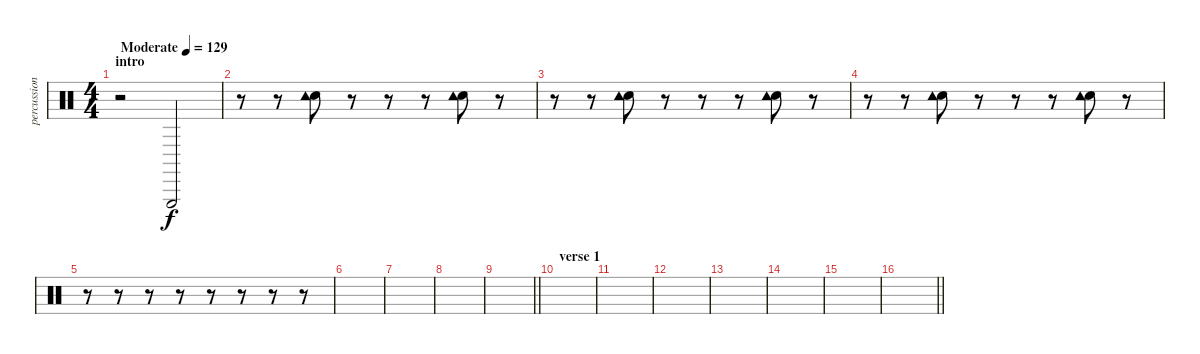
\track ("percussion" "percussion") {instrument percussion}
\staff {score}
\articulation defaults
\ts (4 4)
\section ("" "intro")
\tempo (129 "Moderate")
\clef neutral
\ks c
r.2{dy f} "Triangle (hit)".2 |
r.8 r.8 ("Electric Snare (hit)" "Tambourine (hit)").8 r.8 r.8 r.8 ("Electric Snare (hit)" "Tambourine (hit)").8 r.8 |
r.8 r.8 ("Electric Snare (hit)" "Tambourine (hit)").8 r.8 r.8 r.8 ("Electric Snare (hit)" "Tambourine (hit)").8 r.8 |
r.8 r.8 ("Electric Snare (hit)" "Tambourine (hit)").8 r.8 r.8 r.8 ("Electric Snare (hit)" "Tambourine (hit)").8 r.8 |
r.8 r.8 r.8 r.8 r.8 r.8 r.8 r.8 |
|
|
|
\barLineRight lightlight
|
\section ("" "verse 1")
|
|
|
|
|
|
\barLineRight lightlight
